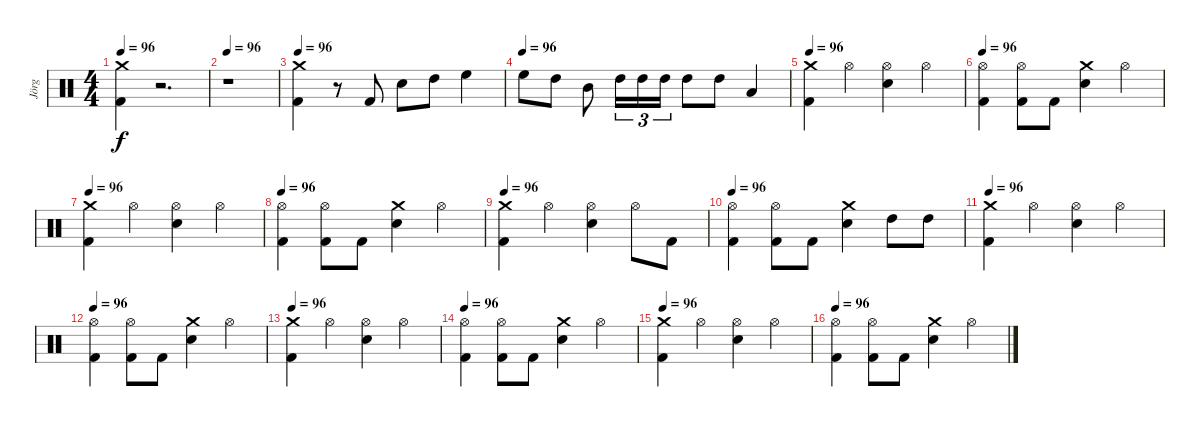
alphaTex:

\track ("Jörg" "Jörg") {instrument percussion}
\staff {score}
\articulation defaults
\ts (4 4)
\tempo 96
\clef neutral
\ks c
("Crash medium (hit)" "Kick (hit) 2").4{dy f} r.2{d} |
\tempo 96
r.1 |
\tempo 96
("Kick (hit) 2" "Crash medium (hit)").4 r.8 "Kick (hit) 2".8 "Snare (hit) 2".8 "High Tom (hit)".8 "High Floor Tom (hit)".4 |
\tempo (96)
"High Floor Tom (hit)".8 "High Tom (hit)".8 "Mid Tom (hit)".8 "High Tom (hit)".16{tu (3 2)} "High Tom (hit)".16{tu (3 2)} "High Tom (hit)".16{tu (3 2)} "High Tom (hit)".8 "High Tom (hit)".8 "Low Tom (hit)".4 |
\tempo 96
("Kick (hit) 2" "Crash medium (hit)").4 "Hi-Hat (open)".4 ("Snare (hit) 2" "Hi-Hat (open)").4 "Hi-Hat (open)".4 |
\tempo 96
("Kick (hit) 2" "Hi-Hat (open)").4 ("Kick (hit) 2" "Hi-Hat (open)").8 "Kick (hit) 2".8 ("Snare (hit) 2" "Crash medium (hit)").4 "Hi-Hat (open)".4 |
\tempo 96
("Kick (hit) 2" "Crash medium (hit)").4 "Hi-Hat (open)".4 ("Snare (hit) 2" "Hi-Hat (open)").4 "Hi-Hat (open)".4 |
\tempo 96
("Kick (hit) 2" "Hi-Hat (open)").4 ("Kick (hit) 2" "Hi-Hat (open)").8 "Kick (hit) 2".8 ("Snare (hit) 2" "Crash medium (hit)").4 "Hi-Hat (open)".4 |
\tempo 96
("Kick (hit) 2" "Crash medium (hit)").4 "Hi-Hat (open)".4 ("Snare (hit) 2" "Hi-Hat (open)").4 "Hi-Hat (open)".8 "Kick (hit) 2".8 |
\tempo 96
("Kick (hit) 2" "Hi-Hat (open)").4 ("Kick (hit) 2" "Hi-Hat (open)").8 "Kick (hit) 2".8 ("Snare (hit) 2" "Crash medium (hit)").4 "High Tom (hit)".8 "High Tom (hit)".8 |
\tempo 96
("Kick (hit) 2" "Crash medium (hit)").4 "Hi-Hat (open)".4 ("Snare (hit) 2" "Hi-Hat (open)").4 "Hi-Hat (open)".4 |
\tempo 96
("Kick (hit) 2" "Hi-Hat (open)").4 ("Kick (hit) 2" "Hi-Hat (open)").8 "Kick (hit) 2".8 ("Snare (hit) 2" "Crash medium (hit)").4 "Hi-Hat (open)".4 |
\tempo 96
("Kick (hit) 2" "Crash medium (hit)").4 "Hi-Hat (open)".4 ("Snare (hit) 2" "Hi-Hat (open)").4 "Hi-Hat (open)".4 |
\tempo 96
("Kick (hit) 2" "Hi-Hat (open)").4 ("Kick (hit) 2" "Hi-Hat (open)").8 "Kick (hit) 2".8 ("Snare (hit) 2" "Crash medium (hit)").4 "Hi-Hat (open)".4 |
\tempo 96
("Kick (hit) 2" "Crash medium (hit)").4 "Hi-Hat (open)".4 ("Snare (hit) 2" "Hi-Hat (open)").4 "Hi-Hat (open)".4 |
\tempo 96
("Kick (hit) 2" "Hi-Hat (open)").4 ("Kick (hit) 2" "Hi-Hat (open)").8 "Kick (hit) 2".8 ("Snare (hit) 2" "Crash medium (hit)").4 "Hi-Hat (open)".4
